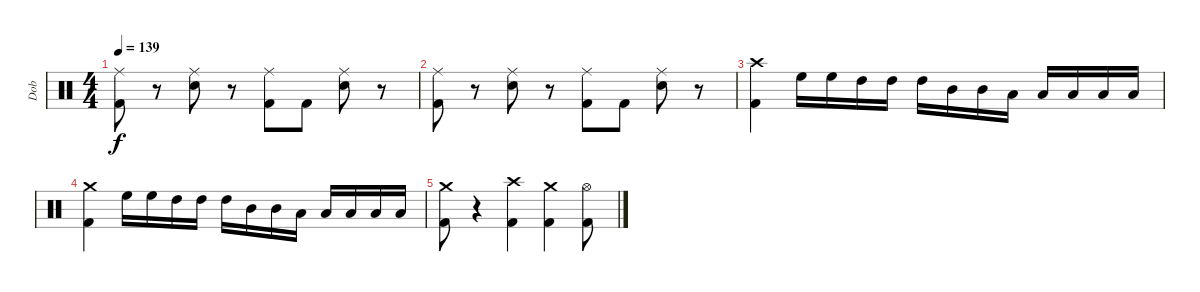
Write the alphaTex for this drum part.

\track ("Dob" "Dob") {instrument percussion}
\staff {score}
\articulation defaults
\ts (4 4)
\tempo 139
\clef neutral
\ks c
("Ride (middle)" "Kick (hit) 2").8{dy f} r.8 ("Ride (middle)" "Electric Snare (hit)").8 r.8 ("Ride (middle)" "Kick (hit) 2").8 "Kick (hit) 2".8 ("Ride (middle)" "Electric Snare (hit)").8 r.8 |
("Ride (middle)" "Kick (hit) 2").8 r.8 ("Ride (middle)" "Electric Snare (hit)").8 r.8 ("Ride (middle)" "Kick (hit) 2").8 "Kick (hit) 2".8 ("Ride (middle)" "Electric Snare (hit)").8 r.8 |
("Crash high (hit)" "Kick (hit) 2").4 "High Floor Tom (hit)".16 "High Floor Tom (hit)".16 "High Tom (hit)".16 "High Tom (hit)".16 "High Tom (hit)".16 "Mid Tom (hit)".16 "Mid Tom (hit)".16 "Low Tom (hit)".16 "Low Tom (hit)".16 "Low Tom (hit)".16 "Low Tom (hit)".16 "Low Tom (hit)".16 |
("Crash medium (hit)" "Kick (hit) 2").4 "High Floor Tom (hit)".16 "High Floor Tom (hit)".16 "High Tom (hit)".16 "High Tom (hit)".16 "High Tom (hit)".16 "Mid Tom (hit)".16 "Mid Tom (hit)".16 "Low Tom (hit)".16 "Low Tom (hit)".16 "Low Tom (hit)".16 "Low Tom (hit)".16 "Low Tom (hit)".16 |
("Crash medium (hit)" "Kick (hit) 2").8 r.4 ("Crash high (hit)" "Kick (hit) 2").4 ("Crash medium (hit)" "Kick (hit) 2").4 ("Hi-Hat (open)" "Kick (hit) 2").8
